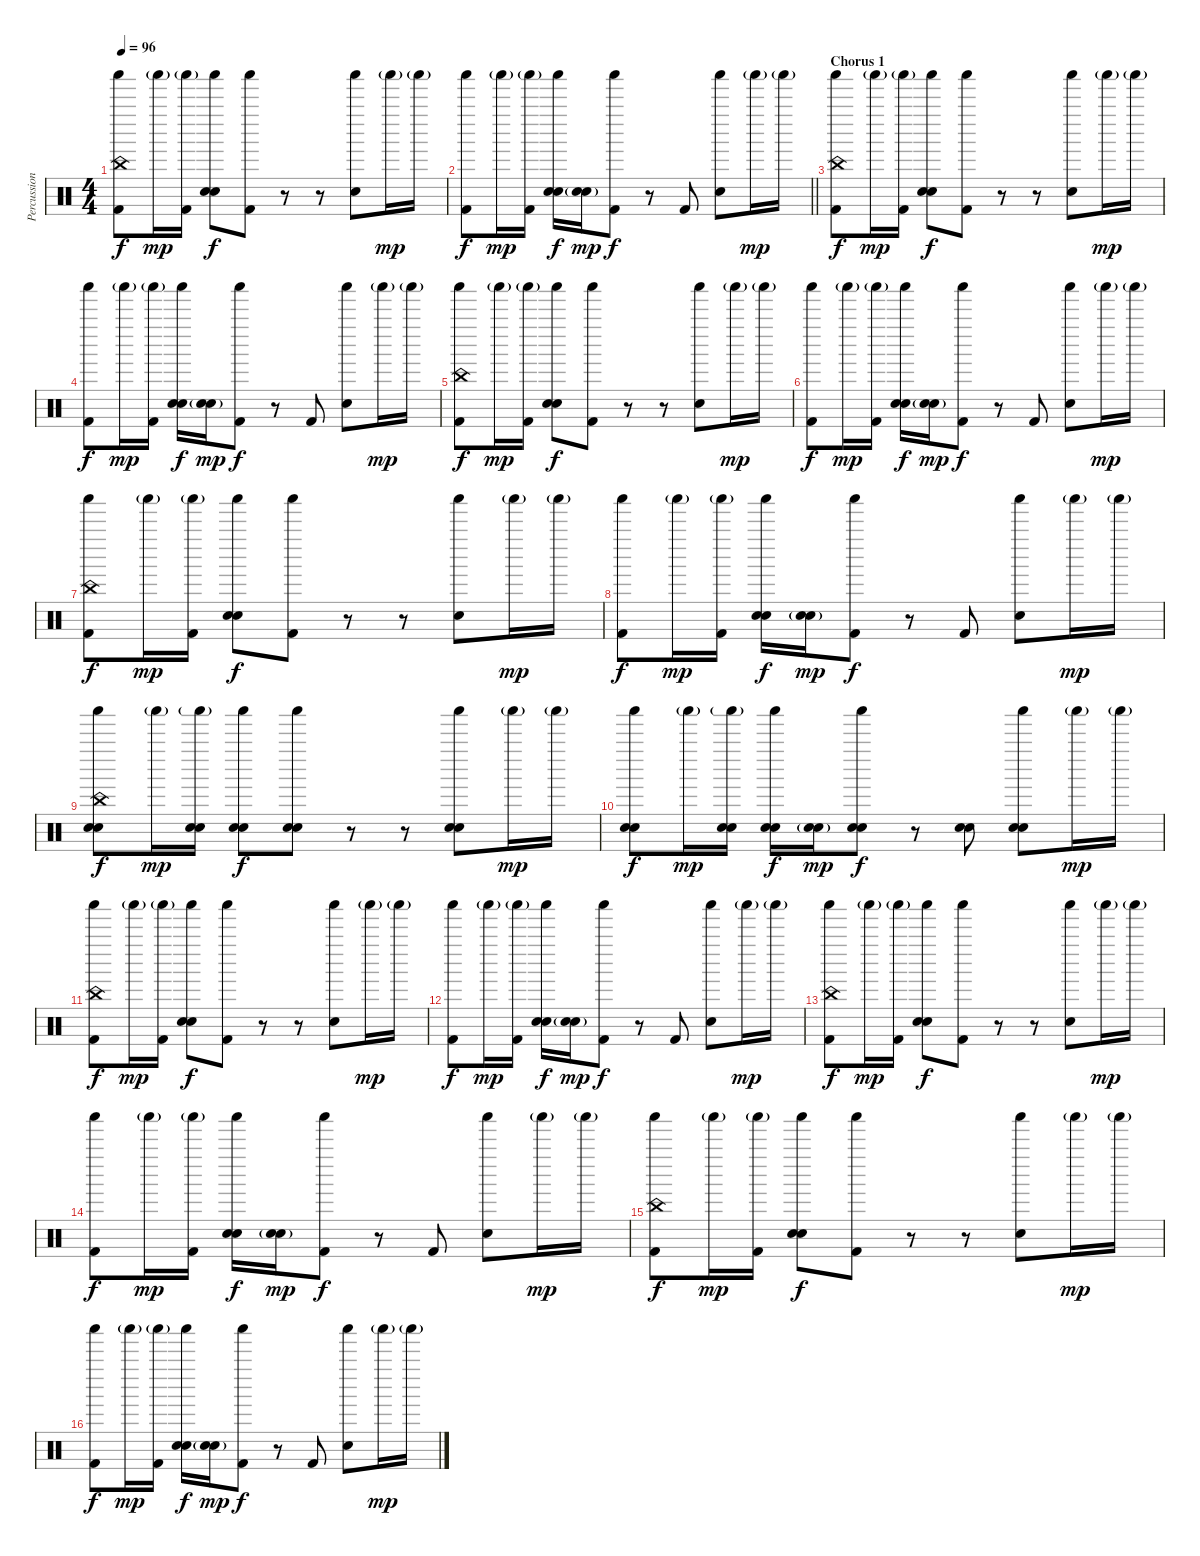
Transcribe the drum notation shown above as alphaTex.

\track ("Percussion" "Percussion") {instrument percussion}
\staff {score}
\articulation defaults
\ts (4 4)
\tempo 96
\clef neutral
\ks c
("China (hit)" "Shaker (hit)" "Kick (hit) 2").8{dy f} "Shaker (hit)"{g}.16{dy mp} ("Shaker (hit)"{g} "Kick (hit) 2").16 ("Shaker (hit)" "Hand Clap (hit)" "Electric Snare (hit)").8{dy f} ("Shaker (hit)" "Kick (hit) 2").8 r.8 r.8 ("Shaker (hit)" "Electric Snare (hit)").8 "Shaker (hit)"{g}.16{dy mp} "Shaker (hit)"{g}.16 |
\barLineRight lightlight
("Shaker (hit)" "Kick (hit) 2").8{dy f} "Shaker (hit)"{g}.16{dy mp} ("Shaker (hit)"{g} "Kick (hit) 2").16 ("Shaker (hit)" "Hand Clap (hit)" "Electric Snare (hit)").16{dy f} ("Hand Clap (hit)"{g} "Electric Snare (hit)"{g}).16{dy mp} ("Shaker (hit)" "Kick (hit) 2").8{dy f} r.8 "Kick (hit) 2".8 ("Shaker (hit)" "Electric Snare (hit)").8 "Shaker (hit)"{g}.16{dy mp} "Shaker (hit)"{g}.16 |
\section ("" "Chorus 1")
("China (hit)" "Shaker (hit)" "Kick (hit) 2").8{dy f} "Shaker (hit)"{g}.16{dy mp} ("Shaker (hit)"{g} "Kick (hit) 2").16 ("Shaker (hit)" "Hand Clap (hit)" "Electric Snare (hit)").8{dy f} ("Shaker (hit)" "Kick (hit) 2").8 r.8 r.8 ("Shaker (hit)" "Electric Snare (hit)").8 "Shaker (hit)"{g}.16{dy mp} "Shaker (hit)"{g}.16 |
("Shaker (hit)" "Kick (hit) 2").8{dy f} "Shaker (hit)"{g}.16{dy mp} ("Shaker (hit)"{g} "Kick (hit) 2").16 ("Shaker (hit)" "Hand Clap (hit)" "Electric Snare (hit)").16{dy f} ("Hand Clap (hit)"{g} "Electric Snare (hit)"{g}).16{dy mp} ("Shaker (hit)" "Kick (hit) 2").8{dy f} r.8 "Kick (hit) 2".8 ("Shaker (hit)" "Electric Snare (hit)").8 "Shaker (hit)"{g}.16{dy mp} "Shaker (hit)"{g}.16 |
("China (hit)" "Shaker (hit)" "Kick (hit) 2").8{dy f} "Shaker (hit)"{g}.16{dy mp} ("Shaker (hit)"{g} "Kick (hit) 2").16 ("Shaker (hit)" "Hand Clap (hit)" "Electric Snare (hit)").8{dy f} ("Shaker (hit)" "Kick (hit) 2").8 r.8 r.8 ("Shaker (hit)" "Electric Snare (hit)").8 "Shaker (hit)"{g}.16{dy mp} "Shaker (hit)"{g}.16 |
("Shaker (hit)" "Kick (hit) 2").8{dy f} "Shaker (hit)"{g}.16{dy mp} ("Shaker (hit)"{g} "Kick (hit) 2").16 ("Shaker (hit)" "Hand Clap (hit)" "Electric Snare (hit)").16{dy f} ("Hand Clap (hit)"{g} "Electric Snare (hit)"{g}).16{dy mp} ("Shaker (hit)" "Kick (hit) 2").8{dy f} r.8 "Kick (hit) 2".8 ("Shaker (hit)" "Electric Snare (hit)").8 "Shaker (hit)"{g}.16{dy mp} "Shaker (hit)"{g}.16 |
("China (hit)" "Shaker (hit)" "Kick (hit) 2").8{dy f} "Shaker (hit)"{g}.16{dy mp} ("Shaker (hit)"{g} "Kick (hit) 2").16 ("Shaker (hit)" "Hand Clap (hit)" "Electric Snare (hit)").8{dy f} ("Shaker (hit)" "Kick (hit) 2").8 r.8 r.8 ("Shaker (hit)" "Electric Snare (hit)").8 "Shaker (hit)"{g}.16{dy mp} "Shaker (hit)"{g}.16 |
("Shaker (hit)" "Kick (hit) 2").8{dy f} "Shaker (hit)"{g}.16{dy mp} ("Shaker (hit)"{g} "Kick (hit) 2").16 ("Shaker (hit)" "Hand Clap (hit)" "Electric Snare (hit)").16{dy f} ("Hand Clap (hit)"{g} "Electric Snare (hit)"{g}).16{dy mp} ("Shaker (hit)" "Kick (hit) 2").8{dy f} r.8 "Kick (hit) 2".8 ("Shaker (hit)" "Electric Snare (hit)").8 "Shaker (hit)"{g}.16{dy mp} "Shaker (hit)"{g}.16 |
("China (hit)" "Shaker (hit)" "Snare (hit) 2" "Electric Snare (hit)").8{dy f} "Shaker (hit)"{g}.16{dy mp} ("Shaker (hit)"{g} "Snare (hit) 2" "Electric Snare (hit)").16 ("Shaker (hit)" "Hand Clap (hit)" "Electric Snare (hit)").8{dy f} ("Shaker (hit)" "Snare (hit) 2" "Electric Snare (hit)").8 r.8 r.8 ("Shaker (hit)" "Snare (hit) 2" "Electric Snare (hit)").8 "Shaker (hit)"{g}.16{dy mp} "Shaker (hit)"{g}.16 |
("Shaker (hit)" "Snare (hit) 2" "Electric Snare (hit)").8{dy f} "Shaker (hit)"{g}.16{dy mp} ("Shaker (hit)"{g} "Snare (hit) 2" "Electric Snare (hit)").16 ("Shaker (hit)" "Hand Clap (hit)" "Electric Snare (hit)").16{dy f} ("Hand Clap (hit)"{g} "Electric Snare (hit)"{g}).16{dy mp} ("Shaker (hit)" "Snare (hit) 2" "Electric Snare (hit)").8{dy f} r.8 ("Snare (hit) 2" "Electric Snare (hit)").8 ("Shaker (hit)" "Snare (hit) 2" "Electric Snare (hit)").8 "Shaker (hit)"{g}.16{dy mp} "Shaker (hit)"{g}.16 |
("China (hit)" "Shaker (hit)" "Kick (hit) 2").8{dy f} "Shaker (hit)"{g}.16{dy mp} ("Shaker (hit)"{g} "Kick (hit) 2").16 ("Shaker (hit)" "Hand Clap (hit)" "Electric Snare (hit)").8{dy f} ("Shaker (hit)" "Kick (hit) 2").8 r.8 r.8 ("Shaker (hit)" "Electric Snare (hit)").8 "Shaker (hit)"{g}.16{dy mp} "Shaker (hit)"{g}.16 |
("Shaker (hit)" "Kick (hit) 2").8{dy f} "Shaker (hit)"{g}.16{dy mp} ("Shaker (hit)"{g} "Kick (hit) 2").16 ("Shaker (hit)" "Hand Clap (hit)" "Electric Snare (hit)").16{dy f} ("Hand Clap (hit)"{g} "Electric Snare (hit)"{g}).16{dy mp} ("Shaker (hit)" "Kick (hit) 2").8{dy f} r.8 "Kick (hit) 2".8 ("Shaker (hit)" "Electric Snare (hit)").8 "Shaker (hit)"{g}.16{dy mp} "Shaker (hit)"{g}.16 |
("China (hit)" "Shaker (hit)" "Kick (hit) 2").8{dy f} "Shaker (hit)"{g}.16{dy mp} ("Shaker (hit)"{g} "Kick (hit) 2").16 ("Shaker (hit)" "Hand Clap (hit)" "Electric Snare (hit)").8{dy f} ("Shaker (hit)" "Kick (hit) 2").8 r.8 r.8 ("Shaker (hit)" "Electric Snare (hit)").8 "Shaker (hit)"{g}.16{dy mp} "Shaker (hit)"{g}.16 |
("Shaker (hit)" "Kick (hit) 2").8{dy f} "Shaker (hit)"{g}.16{dy mp} ("Shaker (hit)"{g} "Kick (hit) 2").16 ("Shaker (hit)" "Hand Clap (hit)" "Electric Snare (hit)").16{dy f} ("Hand Clap (hit)"{g} "Electric Snare (hit)"{g}).16{dy mp} ("Shaker (hit)" "Kick (hit) 2").8{dy f} r.8 "Kick (hit) 2".8 ("Shaker (hit)" "Electric Snare (hit)").8 "Shaker (hit)"{g}.16{dy mp} "Shaker (hit)"{g}.16 |
("China (hit)" "Shaker (hit)" "Kick (hit) 2").8{dy f} "Shaker (hit)"{g}.16{dy mp} ("Shaker (hit)"{g} "Kick (hit) 2").16 ("Shaker (hit)" "Hand Clap (hit)" "Electric Snare (hit)").8{dy f} ("Shaker (hit)" "Kick (hit) 2").8 r.8 r.8 ("Shaker (hit)" "Electric Snare (hit)").8 "Shaker (hit)"{g}.16{dy mp} "Shaker (hit)"{g}.16 |
("Shaker (hit)" "Kick (hit) 2").8{dy f} "Shaker (hit)"{g}.16{dy mp} ("Shaker (hit)"{g} "Kick (hit) 2").16 ("Shaker (hit)" "Hand Clap (hit)" "Electric Snare (hit)").16{dy f} ("Hand Clap (hit)"{g} "Electric Snare (hit)"{g}).16{dy mp} ("Shaker (hit)" "Kick (hit) 2").8{dy f} r.8 "Kick (hit) 2".8 ("Shaker (hit)" "Electric Snare (hit)").8 "Shaker (hit)"{g}.16{dy mp} "Shaker (hit)"{g}.16
